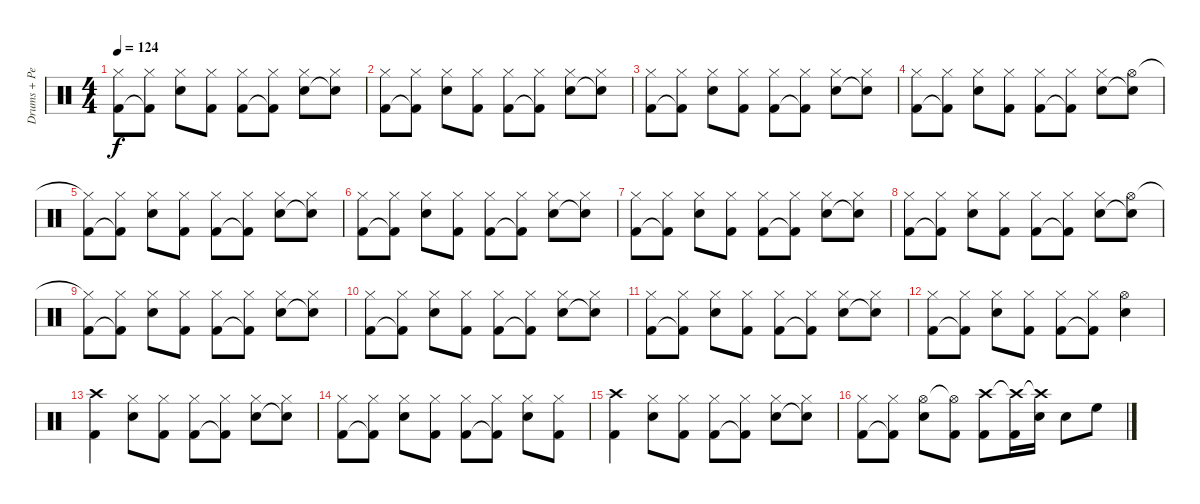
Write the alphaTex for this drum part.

\track ("Drums + Percussions (Bill Berry)" "Drums + Pe") {instrument percussion}
\staff {score}
\articulation defaults
\ts (4 4)
\tempo 124
\clef neutral
\ks c
("Hi-Hat (closed)"{t} "Kick (hit) 2").8{dy f} ("Hi-Hat (closed)" "Kick (hit) 2"{t}).8 ("Hi-Hat (closed)" "Snare (hit) 2").8 ("Hi-Hat (closed)" "Kick (hit) 2").8 ("Hi-Hat (closed)" "Kick (hit) 2").8 ("Hi-Hat (closed)" "Kick (hit) 2"{t}).8 ("Hi-Hat (closed)" "Snare (hit) 2").8 ("Hi-Hat (closed)" "Snare (hit) 2"{t}).8 |
("Hi-Hat (closed)" "Kick (hit) 2").8 ("Hi-Hat (closed)" "Kick (hit) 2"{t}).8 ("Hi-Hat (closed)" "Snare (hit) 2").8 ("Hi-Hat (closed)" "Kick (hit) 2").8 ("Hi-Hat (closed)" "Kick (hit) 2").8 ("Hi-Hat (closed)" "Kick (hit) 2"{t}).8 ("Hi-Hat (closed)" "Snare (hit) 2").8 ("Hi-Hat (closed)" "Snare (hit) 2"{t}).8 |
("Hi-Hat (closed)" "Kick (hit) 2").8 ("Hi-Hat (closed)" "Kick (hit) 2"{t}).8 ("Hi-Hat (closed)" "Snare (hit) 2").8 ("Hi-Hat (closed)" "Kick (hit) 2").8 ("Hi-Hat (closed)" "Kick (hit) 2").8 ("Hi-Hat (closed)" "Kick (hit) 2"{t}).8 ("Hi-Hat (closed)" "Snare (hit) 2").8 ("Hi-Hat (closed)" "Snare (hit) 2"{t}).8 |
("Hi-Hat (closed)" "Kick (hit) 2").8 ("Hi-Hat (closed)" "Kick (hit) 2"{t}).8 ("Hi-Hat (closed)" "Snare (hit) 2").8 ("Hi-Hat (closed)" "Kick (hit) 2").8 ("Hi-Hat (closed)" "Kick (hit) 2").8 ("Hi-Hat (closed)" "Kick (hit) 2"{t}).8 ("Hi-Hat (closed)" "Snare (hit) 2").8 ("Hi-Hat (open)" "Snare (hit) 2"{t}).8 |
("Hi-Hat (closed)"{t} "Kick (hit) 2").8 ("Hi-Hat (closed)" "Kick (hit) 2"{t}).8 ("Hi-Hat (closed)" "Snare (hit) 2").8 ("Hi-Hat (closed)" "Kick (hit) 2").8 ("Hi-Hat (closed)" "Kick (hit) 2").8 ("Hi-Hat (closed)" "Kick (hit) 2"{t}).8 ("Hi-Hat (closed)" "Snare (hit) 2").8 ("Hi-Hat (closed)" "Snare (hit) 2"{t}).8 |
("Hi-Hat (closed)" "Kick (hit) 2").8 ("Hi-Hat (closed)" "Kick (hit) 2"{t}).8 ("Hi-Hat (closed)" "Snare (hit) 2").8 ("Hi-Hat (closed)" "Kick (hit) 2").8 ("Hi-Hat (closed)" "Kick (hit) 2").8 ("Hi-Hat (closed)" "Kick (hit) 2"{t}).8 ("Hi-Hat (closed)" "Snare (hit) 2").8 ("Hi-Hat (closed)" "Snare (hit) 2"{t}).8 |
("Hi-Hat (closed)" "Kick (hit) 2").8 ("Hi-Hat (closed)" "Kick (hit) 2"{t}).8 ("Hi-Hat (closed)" "Snare (hit) 2").8 ("Hi-Hat (closed)" "Kick (hit) 2").8 ("Hi-Hat (closed)" "Kick (hit) 2").8 ("Hi-Hat (closed)" "Kick (hit) 2"{t}).8 ("Hi-Hat (closed)" "Snare (hit) 2").8 ("Hi-Hat (closed)" "Snare (hit) 2"{t}).8 |
("Hi-Hat (closed)" "Kick (hit) 2").8 ("Hi-Hat (closed)" "Kick (hit) 2"{t}).8 ("Hi-Hat (closed)" "Snare (hit) 2").8 ("Hi-Hat (closed)" "Kick (hit) 2").8 ("Hi-Hat (closed)" "Kick (hit) 2").8 ("Hi-Hat (closed)" "Kick (hit) 2"{t}).8 ("Hi-Hat (closed)" "Snare (hit) 2").8 ("Hi-Hat (open)" "Snare (hit) 2"{t}).8 |
("Hi-Hat (closed)"{t} "Kick (hit) 2").8 ("Hi-Hat (closed)" "Kick (hit) 2"{t}).8 ("Hi-Hat (closed)" "Snare (hit) 2").8 ("Hi-Hat (closed)" "Kick (hit) 2").8 ("Hi-Hat (closed)" "Kick (hit) 2").8 ("Hi-Hat (closed)" "Kick (hit) 2"{t}).8 ("Hi-Hat (closed)" "Snare (hit) 2").8 ("Hi-Hat (closed)" "Snare (hit) 2"{t}).8 |
("Hi-Hat (closed)" "Kick (hit) 2").8 ("Hi-Hat (closed)" "Kick (hit) 2"{t}).8 ("Hi-Hat (closed)" "Snare (hit) 2").8 ("Hi-Hat (closed)" "Kick (hit) 2").8 ("Hi-Hat (closed)" "Kick (hit) 2").8 ("Hi-Hat (closed)" "Kick (hit) 2"{t}).8 ("Hi-Hat (closed)" "Snare (hit) 2").8 ("Hi-Hat (closed)" "Snare (hit) 2"{t}).8 |
("Hi-Hat (closed)" "Kick (hit) 2").8 ("Hi-Hat (closed)" "Kick (hit) 2"{t}).8 ("Hi-Hat (closed)" "Snare (hit) 2").8 ("Hi-Hat (closed)" "Kick (hit) 2").8 ("Hi-Hat (closed)" "Kick (hit) 2").8 ("Hi-Hat (closed)" "Kick (hit) 2"{t}).8 ("Hi-Hat (closed)" "Snare (hit) 2").8 ("Hi-Hat (closed)" "Snare (hit) 2"{t}).8 |
("Hi-Hat (closed)" "Kick (hit) 2").8 ("Hi-Hat (closed)" "Kick (hit) 2"{t}).8 ("Hi-Hat (closed)" "Snare (hit) 2").8 ("Hi-Hat (closed)" "Kick (hit) 2").8 ("Hi-Hat (closed)" "Kick (hit) 2").8 ("Hi-Hat (closed)" "Kick (hit) 2"{t}).8 ("Hi-Hat (open)" "Snare (hit) 2").4 |
("Crash high (hit)" "Kick (hit) 2").4 ("Hi-Hat (closed)" "Snare (hit) 2").8 ("Hi-Hat (closed)" "Kick (hit) 2").8 ("Hi-Hat (closed)" "Kick (hit) 2").8 ("Hi-Hat (closed)" "Kick (hit) 2"{t}).8 ("Hi-Hat (closed)" "Snare (hit) 2").8 ("Hi-Hat (closed)" "Snare (hit) 2"{t}).8 |
("Hi-Hat (closed)" "Kick (hit) 2").8 ("Hi-Hat (closed)" "Kick (hit) 2"{t}).8 ("Hi-Hat (closed)" "Snare (hit) 2").8 ("Hi-Hat (closed)" "Kick (hit) 2").8 ("Hi-Hat (closed)" "Kick (hit) 2").8 ("Hi-Hat (closed)" "Kick (hit) 2"{t}).8 ("Hi-Hat (closed)" "Snare (hit) 2").8 ("Hi-Hat (closed)" "Kick (hit) 2").8 |
("Crash high (hit)" "Kick (hit) 2").4 ("Hi-Hat (closed)" "Snare (hit) 2").8 ("Hi-Hat (closed)" "Kick (hit) 2").8 ("Hi-Hat (closed)" "Kick (hit) 2").8 ("Hi-Hat (closed)" "Kick (hit) 2"{t}).8 ("Hi-Hat (closed)" "Snare (hit) 2").8 ("Hi-Hat (closed)" "Snare (hit) 2"{t}).8 |
("Hi-Hat (closed)" "Kick (hit) 2").8 ("Hi-Hat (closed)" "Kick (hit) 2"{t}).8 ("Hi-Hat (open)" "Snare (hit) 2").8 ("Hi-Hat (open)"{t} "Kick (hit) 2").8 ("Crash high (hit)" "Kick (hit) 2").8 ("Crash high (hit)"{t} "Kick (hit) 2").16 ("Crash high (hit)"{t} "Snare (hit) 2").16 "Snare (hit) 2".8 "High Floor Tom (hit)".8
